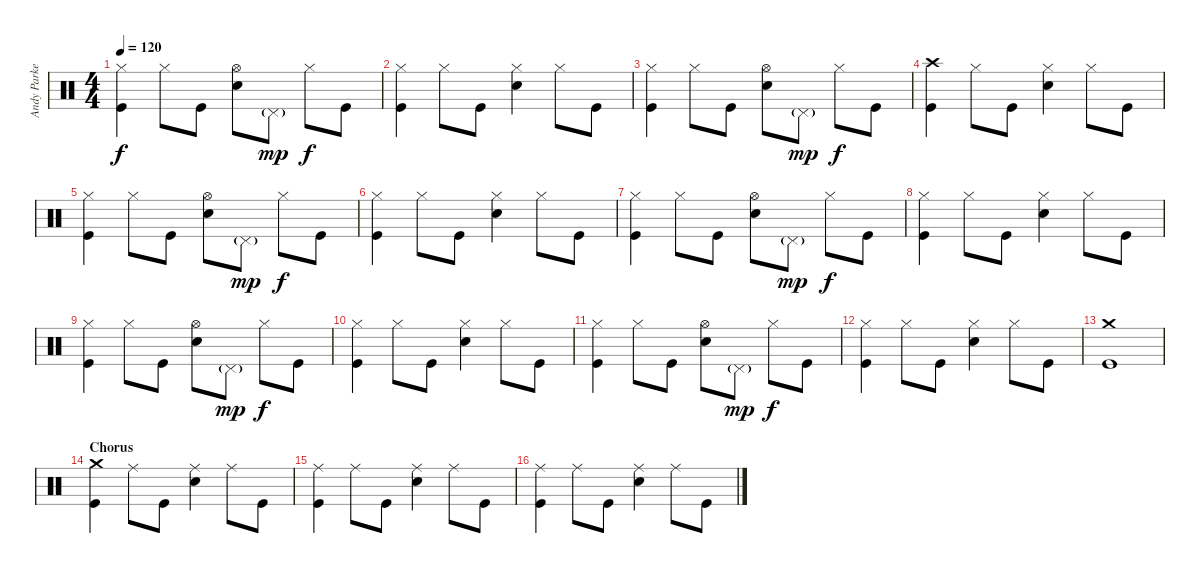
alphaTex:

\track ("Andy Parker" "Andy Parke") {instrument percussion}
\staff {score}
\articulation defaults
\ts (4 4)
\tempo 120
\clef neutral
\ks c
("Hi-Hat (closed)" "Kick (hit)").4{dy f} "Hi-Hat (closed)".8 "Kick (hit)".8 ("Hi-Hat (open)" "Snare (hit) 2").8 "Pedal Hi-Hat (hit)"{g}.8{dy mp} "Hi-Hat (closed)".8{dy f} "Kick (hit)".8 |
("Hi-Hat (closed)" "Kick (hit)").4 "Hi-Hat (closed)".8 "Kick (hit)".8 ("Hi-Hat (closed)" "Snare (hit) 2").4 "Hi-Hat (closed)".8 "Kick (hit)".8 |
("Hi-Hat (closed)" "Kick (hit)").4 "Hi-Hat (closed)".8 "Kick (hit)".8 ("Hi-Hat (open)" "Snare (hit) 2").8 "Pedal Hi-Hat (hit)"{g}.8{dy mp} "Hi-Hat (closed)".8{dy f} "Kick (hit)".8 |
("Crash high (hit)" "Kick (hit)").4 "Hi-Hat (closed)".8 "Kick (hit)".8 ("Hi-Hat (closed)" "Snare (hit) 2").4 "Hi-Hat (closed)".8 "Kick (hit)".8 |
("Hi-Hat (closed)" "Kick (hit)").4 "Hi-Hat (closed)".8 "Kick (hit)".8 ("Hi-Hat (open)" "Snare (hit) 2").8 "Pedal Hi-Hat (hit)"{g}.8{dy mp} "Hi-Hat (closed)".8{dy f} "Kick (hit)".8 |
("Hi-Hat (closed)" "Kick (hit)").4 "Hi-Hat (closed)".8 "Kick (hit)".8 ("Hi-Hat (closed)" "Snare (hit) 2").4 "Hi-Hat (closed)".8 "Kick (hit)".8 |
("Hi-Hat (closed)" "Kick (hit)").4 "Hi-Hat (closed)".8 "Kick (hit)".8 ("Hi-Hat (open)" "Snare (hit) 2").8 "Pedal Hi-Hat (hit)"{g}.8{dy mp} "Hi-Hat (closed)".8{dy f} "Kick (hit)".8 |
("Hi-Hat (closed)" "Kick (hit)").4 "Hi-Hat (closed)".8 "Kick (hit)".8 ("Hi-Hat (closed)" "Snare (hit) 2").4 "Hi-Hat (closed)".8 "Kick (hit)".8 |
("Hi-Hat (closed)" "Kick (hit)").4 "Hi-Hat (closed)".8 "Kick (hit)".8 ("Hi-Hat (open)" "Snare (hit) 2").8 "Pedal Hi-Hat (hit)"{g}.8{dy mp} "Hi-Hat (closed)".8{dy f} "Kick (hit)".8 |
("Hi-Hat (closed)" "Kick (hit)").4 "Hi-Hat (closed)".8 "Kick (hit)".8 ("Hi-Hat (closed)" "Snare (hit) 2").4 "Hi-Hat (closed)".8 "Kick (hit)".8 |
("Hi-Hat (closed)" "Kick (hit)").4 "Hi-Hat (closed)".8 "Kick (hit)".8 ("Hi-Hat (open)" "Snare (hit) 2").8 "Pedal Hi-Hat (hit)"{g}.8{dy mp} "Hi-Hat (closed)".8{dy f} "Kick (hit)".8 |
("Hi-Hat (closed)" "Kick (hit)").4 "Hi-Hat (closed)".8 "Kick (hit)".8 ("Hi-Hat (closed)" "Snare (hit) 2").4 "Hi-Hat (closed)".8 "Kick (hit)".8 |
("Crash medium (hit)" "Kick (hit)").1 |
\section ("" "Chorus")
("Crash medium (hit)" "Kick (hit)").4 "Ride (middle)".8 "Kick (hit)".8 ("Ride (middle)" "Snare (hit) 2").4 "Ride (middle)".8 "Kick (hit)".8 |
("Ride (middle)" "Kick (hit)").4 "Ride (middle)".8 "Kick (hit)".8 ("Ride (middle)" "Snare (hit) 2").4 "Ride (middle)".8 "Kick (hit)".8 |
("Ride (middle)" "Kick (hit)").4 "Ride (middle)".8 "Kick (hit)".8 ("Ride (middle)" "Snare (hit) 2").4 "Ride (middle)".8 "Kick (hit)".8
